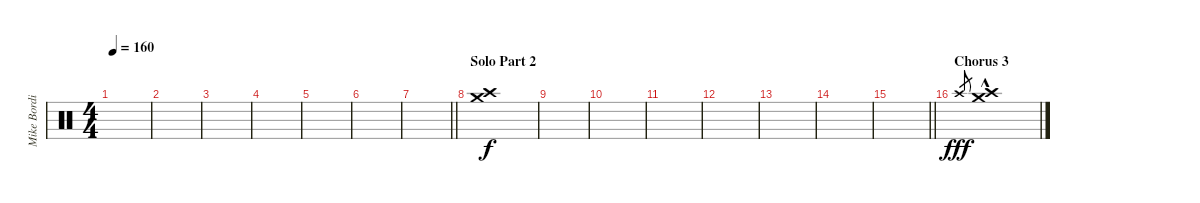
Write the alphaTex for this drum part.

\track ("Mike Bordin - Percussion Crash" "Mike Bordi") {instrument percussion}
\staff {score}
\articulation defaults
\ts (4 4)
\tempo 160
\clef neutral
\ks c
|
|
|
|
|
|
\barLineRight lightlight
|
\section ("" "Solo Part 2")
("Crash medium (hit)" "Crash high (hit)").1{dy f} |
|
|
|
|
|
|
\barLineRight lightlight
|
\section ("" "Chorus 3")
"Crash high (hit)".8{gr dy fff} ("Crash high (hit)"{hac} "Crash medium (hit)").1{volume 16}
